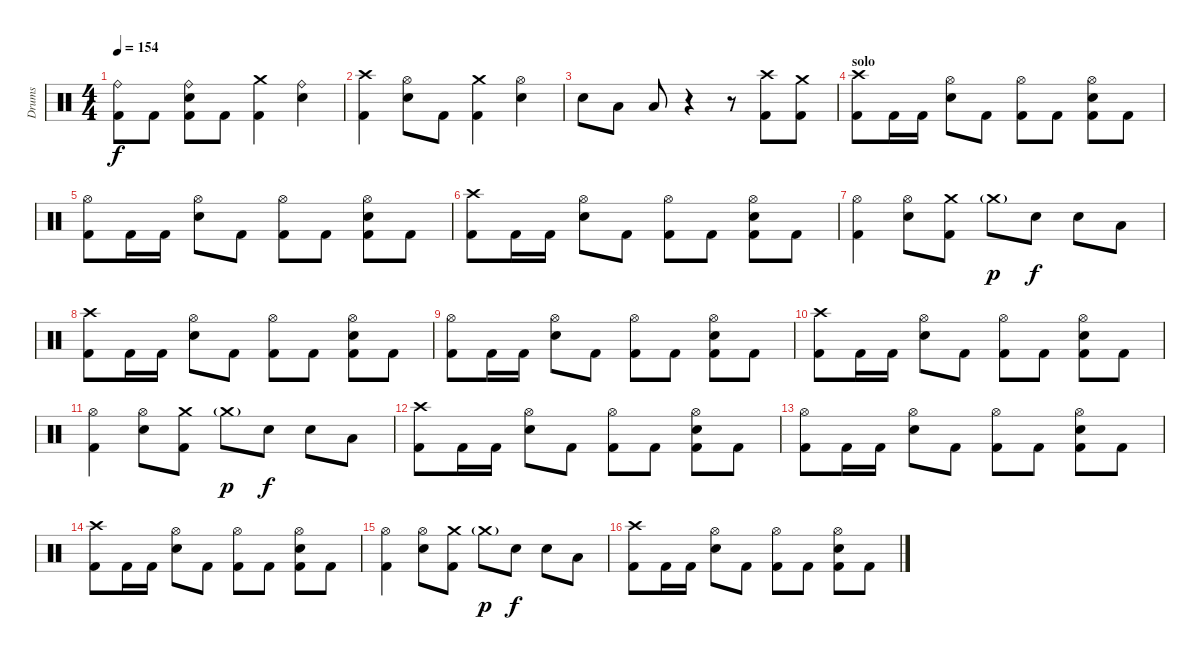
\track ("Drums" "Drums") {instrument percussion}
\staff {score}
\articulation defaults
\ts (4 4)
\tempo 154
\clef neutral
\ks c
("Ride (bell)" "Kick (hit) 2").8{dy f} "Kick (hit) 2".8 ("Ride (bell)" "Electric Snare (hit)" "Kick (hit) 2").8 "Kick (hit) 2".8 ("Crash medium (hit)" "Kick (hit) 2").4 ("Ride (bell)" "Electric Snare (hit)").4 |
("Crash high (hit)" "Kick (hit) 2").4 ("Hi-Hat (open)" "Electric Snare (hit)").8 "Kick (hit) 2".8 ("Crash medium (hit)" "Kick (hit) 2").4 ("Hi-Hat (open)" "Electric Snare (hit)").4 |
"Electric Snare (hit)".8 "Low Tom (hit)".8 "Low Tom (hit)".8 r.4 r.8 ("Crash high (hit)" "Kick (hit) 2").8 ("Crash medium (hit)" "Kick (hit) 2").8 |
\section ("" "solo")
("Crash high (hit)" "Kick (hit) 2").8 "Kick (hit) 2".16 "Kick (hit) 2".16 ("Hi-Hat (open)" "Electric Snare (hit)").8 "Kick (hit) 2".8 ("Hi-Hat (open)" "Kick (hit) 2").8 "Kick (hit) 2".8 ("Hi-Hat (open)" "Electric Snare (hit)" "Kick (hit) 2").8 "Kick (hit) 2".8 |
("Hi-Hat (open)" "Kick (hit) 2").8 "Kick (hit) 2".16 "Kick (hit) 2".16 ("Hi-Hat (open)" "Electric Snare (hit)").8 "Kick (hit) 2".8 ("Hi-Hat (open)" "Kick (hit) 2").8 "Kick (hit) 2".8 ("Hi-Hat (open)" "Electric Snare (hit)" "Kick (hit) 2").8 "Kick (hit) 2".8 |
("Crash high (hit)" "Kick (hit) 2").8 "Kick (hit) 2".16 "Kick (hit) 2".16 ("Hi-Hat (open)" "Electric Snare (hit)").8 "Kick (hit) 2".8 ("Hi-Hat (open)" "Kick (hit) 2").8 "Kick (hit) 2".8 ("Hi-Hat (open)" "Electric Snare (hit)" "Kick (hit) 2").8 "Kick (hit) 2".8 |
("Hi-Hat (open)" "Kick (hit) 2").4 ("Hi-Hat (open)" "Electric Snare (hit)").8 ("Crash medium (hit)" "Kick (hit) 2").8 "Crash medium (hit)"{g}.8{dy p} "Electric Snare (hit)".8{dy f} "Electric Snare (hit)".8 "Low Tom (hit)".8 |
("Crash high (hit)" "Kick (hit) 2").8 "Kick (hit) 2".16 "Kick (hit) 2".16 ("Hi-Hat (open)" "Electric Snare (hit)").8 "Kick (hit) 2".8 ("Hi-Hat (open)" "Kick (hit) 2").8 "Kick (hit) 2".8 ("Hi-Hat (open)" "Electric Snare (hit)" "Kick (hit) 2").8 "Kick (hit) 2".8 |
("Hi-Hat (open)" "Kick (hit) 2").8 "Kick (hit) 2".16 "Kick (hit) 2".16 ("Hi-Hat (open)" "Electric Snare (hit)").8 "Kick (hit) 2".8 ("Hi-Hat (open)" "Kick (hit) 2").8 "Kick (hit) 2".8 ("Hi-Hat (open)" "Electric Snare (hit)" "Kick (hit) 2").8 "Kick (hit) 2".8 |
("Crash high (hit)" "Kick (hit) 2").8 "Kick (hit) 2".16 "Kick (hit) 2".16 ("Hi-Hat (open)" "Electric Snare (hit)").8 "Kick (hit) 2".8 ("Hi-Hat (open)" "Kick (hit) 2").8 "Kick (hit) 2".8 ("Hi-Hat (open)" "Electric Snare (hit)" "Kick (hit) 2").8 "Kick (hit) 2".8 |
("Hi-Hat (open)" "Kick (hit) 2").4 ("Hi-Hat (open)" "Electric Snare (hit)").8 ("Crash medium (hit)" "Kick (hit) 2").8 "Crash medium (hit)"{g}.8{dy p} "Electric Snare (hit)".8{dy f} "Electric Snare (hit)".8 "Low Tom (hit)".8 |
("Crash high (hit)" "Kick (hit) 2").8 "Kick (hit) 2".16 "Kick (hit) 2".16 ("Hi-Hat (open)" "Electric Snare (hit)").8 "Kick (hit) 2".8 ("Hi-Hat (open)" "Kick (hit) 2").8 "Kick (hit) 2".8 ("Hi-Hat (open)" "Electric Snare (hit)" "Kick (hit) 2").8 "Kick (hit) 2".8 |
("Hi-Hat (open)" "Kick (hit) 2").8 "Kick (hit) 2".16 "Kick (hit) 2".16 ("Hi-Hat (open)" "Electric Snare (hit)").8 "Kick (hit) 2".8 ("Hi-Hat (open)" "Kick (hit) 2").8 "Kick (hit) 2".8 ("Hi-Hat (open)" "Electric Snare (hit)" "Kick (hit) 2").8 "Kick (hit) 2".8 |
("Crash high (hit)" "Kick (hit) 2").8 "Kick (hit) 2".16 "Kick (hit) 2".16 ("Hi-Hat (open)" "Electric Snare (hit)").8 "Kick (hit) 2".8 ("Hi-Hat (open)" "Kick (hit) 2").8 "Kick (hit) 2".8 ("Hi-Hat (open)" "Electric Snare (hit)" "Kick (hit) 2").8 "Kick (hit) 2".8 |
("Hi-Hat (open)" "Kick (hit) 2").4 ("Hi-Hat (open)" "Electric Snare (hit)").8 ("Crash medium (hit)" "Kick (hit) 2").8 "Crash medium (hit)"{g}.8{dy p} "Electric Snare (hit)".8{dy f} "Electric Snare (hit)".8 "Low Tom (hit)".8 |
("Crash high (hit)" "Kick (hit) 2").8 "Kick (hit) 2".16 "Kick (hit) 2".16 ("Hi-Hat (open)" "Electric Snare (hit)").8 "Kick (hit) 2".8 ("Hi-Hat (open)" "Kick (hit) 2").8 "Kick (hit) 2".8 ("Hi-Hat (open)" "Electric Snare (hit)" "Kick (hit) 2").8 "Kick (hit) 2".8
